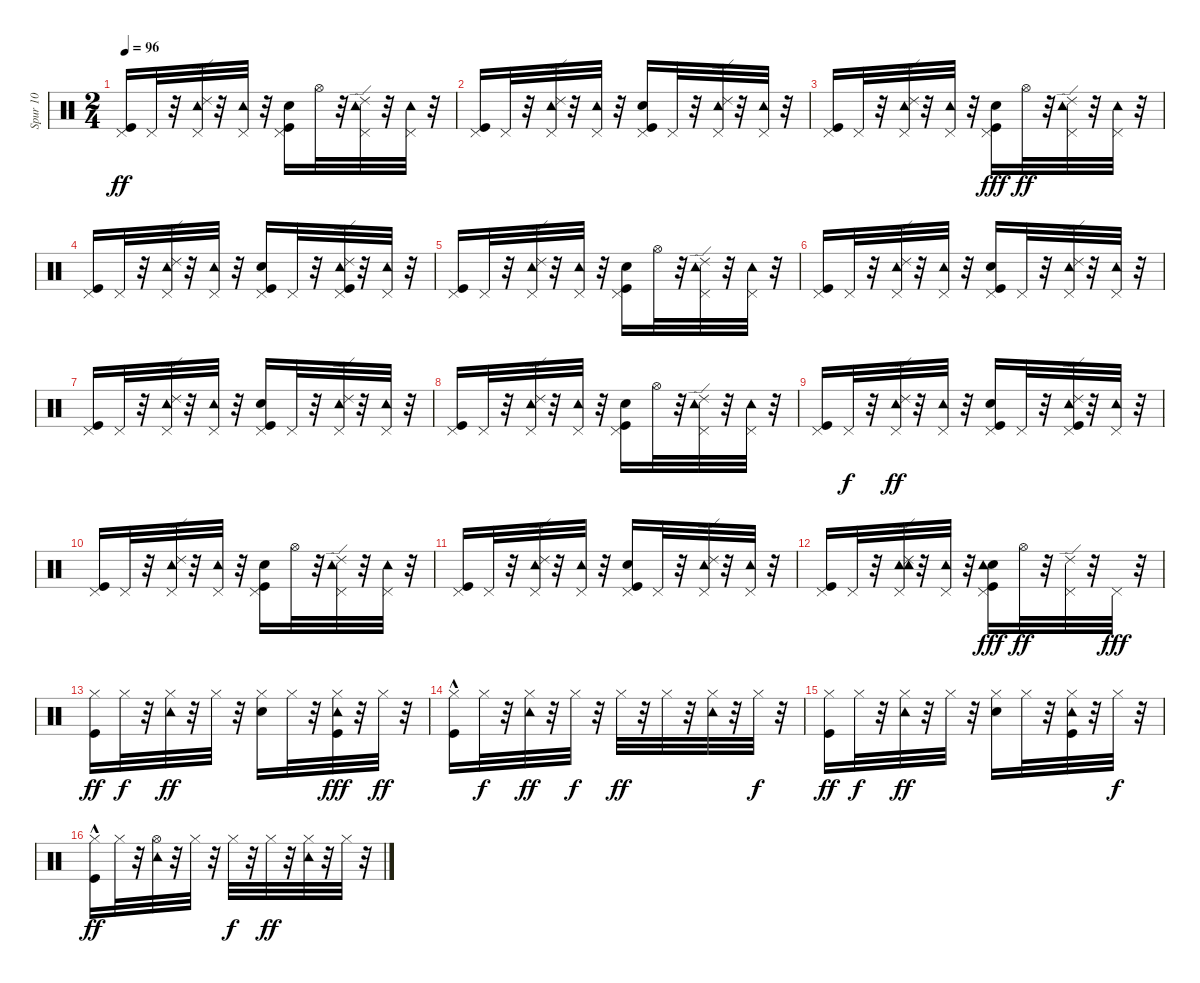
\track ("Spur 10" "Spur 10") {instrument percussion}
\staff {score}
\articulation defaults
\ts (2 4)
\tempo 96
\clef neutral
\ks c
("Kick (hit)" "Pedal Hi-Hat (hit)").16{dy ff} "Pedal Hi-Hat (hit)".32 r.32 ("Tambourine (hit)" "Pedal Hi-Hat (hit)" "Ride (edge) 2").32 r.32 ("Tambourine (hit)" "Pedal Hi-Hat (hit)").32 r.32 ("Kick (hit)" "Snare (hit) 2" "Pedal Hi-Hat (hit)").16 "Hi-Hat (open)".32 r.32 ("Tambourine (hit)" "Pedal Hi-Hat (hit)" "Ride (edge) 2").32 r.32 ("Tambourine (hit)" "Pedal Hi-Hat (hit)").32 r.32 |
("Kick (hit)" "Pedal Hi-Hat (hit)").16 "Pedal Hi-Hat (hit)".32 r.32 ("Tambourine (hit)" "Pedal Hi-Hat (hit)" "Ride (edge) 2").32 r.32 ("Tambourine (hit)" "Pedal Hi-Hat (hit)").32 r.32 ("Kick (hit)" "Snare (hit) 2" "Pedal Hi-Hat (hit)").16 "Pedal Hi-Hat (hit)".32 r.32 ("Tambourine (hit)" "Pedal Hi-Hat (hit)" "Ride (edge) 2").32 r.32 ("Tambourine (hit)" "Pedal Hi-Hat (hit)").32 r.32 |
("Kick (hit)" "Pedal Hi-Hat (hit)").16 "Pedal Hi-Hat (hit)".32 r.32 ("Tambourine (hit)" "Pedal Hi-Hat (hit)" "Ride (edge) 2").32 r.32 ("Tambourine (hit)" "Pedal Hi-Hat (hit)").32 r.32 ("Snare (hit) 2" "Kick (hit)" "Pedal Hi-Hat (hit)").16{dy fff} "Hi-Hat (open)".32{dy ff} r.32 ("Tambourine (hit)" "Pedal Hi-Hat (hit)" "Ride (edge) 2").32 r.32 ("Tambourine (hit)" "Pedal Hi-Hat (hit)").32 r.32 |
("Kick (hit)" "Pedal Hi-Hat (hit)").16 "Pedal Hi-Hat (hit)".32 r.32 ("Tambourine (hit)" "Pedal Hi-Hat (hit)" "Ride (edge) 2").32 r.32 ("Tambourine (hit)" "Pedal Hi-Hat (hit)").32 r.32 ("Snare (hit) 2" "Kick (hit)" "Pedal Hi-Hat (hit)").16 "Pedal Hi-Hat (hit)".32 r.32 ("Kick (hit)" "Tambourine (hit)" "Pedal Hi-Hat (hit)" "Ride (edge) 2").32 r.32 ("Tambourine (hit)" "Pedal Hi-Hat (hit)").32 r.32 |
("Kick (hit)" "Pedal Hi-Hat (hit)").16 "Pedal Hi-Hat (hit)".32 r.32 ("Tambourine (hit)" "Pedal Hi-Hat (hit)" "Ride (edge) 2").32 r.32 ("Tambourine (hit)" "Pedal Hi-Hat (hit)").32 r.32 ("Kick (hit)" "Snare (hit) 2" "Pedal Hi-Hat (hit)").16 "Hi-Hat (open)".32 r.32 ("Tambourine (hit)" "Pedal Hi-Hat (hit)" "Ride (edge) 2").32 r.32 ("Tambourine (hit)" "Pedal Hi-Hat (hit)").32 r.32 |
("Kick (hit)" "Pedal Hi-Hat (hit)").16 "Pedal Hi-Hat (hit)".32 r.32 ("Tambourine (hit)" "Pedal Hi-Hat (hit)" "Ride (edge) 2").32 r.32 ("Tambourine (hit)" "Pedal Hi-Hat (hit)").32 r.32 ("Snare (hit) 2" "Kick (hit)" "Pedal Hi-Hat (hit)").16 "Pedal Hi-Hat (hit)".32 r.32 ("Tambourine (hit)" "Pedal Hi-Hat (hit)" "Ride (edge) 2").32 r.32 ("Tambourine (hit)" "Pedal Hi-Hat (hit)").32 r.32 |
("Kick (hit)" "Pedal Hi-Hat (hit)").16 "Pedal Hi-Hat (hit)".32 r.32 ("Tambourine (hit)" "Pedal Hi-Hat (hit)" "Ride (edge) 2").32 r.32 ("Tambourine (hit)" "Pedal Hi-Hat (hit)").32 r.32 ("Snare (hit) 2" "Kick (hit)" "Pedal Hi-Hat (hit)").16 "Pedal Hi-Hat (hit)".32 r.32 ("Tambourine (hit)" "Pedal Hi-Hat (hit)" "Ride (edge) 2").32 r.32 ("Tambourine (hit)" "Pedal Hi-Hat (hit)").32 r.32 |
("Kick (hit)" "Pedal Hi-Hat (hit)").16 "Pedal Hi-Hat (hit)".32 r.32 ("Tambourine (hit)" "Pedal Hi-Hat (hit)" "Ride (edge) 2").32 r.32 ("Tambourine (hit)" "Pedal Hi-Hat (hit)").32 r.32 ("Snare (hit) 2" "Kick (hit)" "Pedal Hi-Hat (hit)").16 "Hi-Hat (open)".32 r.32 ("Tambourine (hit)" "Pedal Hi-Hat (hit)" "Ride (edge) 2").32 r.32 ("Tambourine (hit)" "Pedal Hi-Hat (hit)").32 r.32 |
("Kick (hit)" "Pedal Hi-Hat (hit)").16 "Pedal Hi-Hat (hit)".32{dy f} r.32 ("Tambourine (hit)" "Pedal Hi-Hat (hit)" "Ride (edge) 2").32{dy ff} r.32 ("Tambourine (hit)" "Pedal Hi-Hat (hit)").32 r.32 ("Snare (hit) 2" "Kick (hit)" "Pedal Hi-Hat (hit)").16 "Pedal Hi-Hat (hit)".32 r.32 ("Kick (hit)" "Tambourine (hit)" "Pedal Hi-Hat (hit)" "Ride (edge) 2").32 r.32 ("Tambourine (hit)" "Pedal Hi-Hat (hit)").32 r.32 |
("Kick (hit)" "Pedal Hi-Hat (hit)").16 "Pedal Hi-Hat (hit)".32 r.32 ("Tambourine (hit)" "Pedal Hi-Hat (hit)" "Ride (edge) 2").32 r.32 ("Tambourine (hit)" "Pedal Hi-Hat (hit)").32 r.32 ("Snare (hit) 2" "Kick (hit)" "Pedal Hi-Hat (hit)").16 "Hi-Hat (open)".32 r.32 ("Tambourine (hit)" "Pedal Hi-Hat (hit)" "Ride (edge) 2").32 r.32 ("Tambourine (hit)" "Pedal Hi-Hat (hit)").32 r.32 |
("Kick (hit)" "Pedal Hi-Hat (hit)").16 "Pedal Hi-Hat (hit)".32 r.32 ("Tambourine (hit)" "Pedal Hi-Hat (hit)" "Ride (edge) 2").32 r.32 ("Tambourine (hit)" "Pedal Hi-Hat (hit)").32 r.32 ("Snare (hit) 2" "Kick (hit)" "Pedal Hi-Hat (hit)").16 "Pedal Hi-Hat (hit)".32 r.32 ("Tambourine (hit)" "Pedal Hi-Hat (hit)" "Ride (edge) 2").32 r.32 ("Tambourine (hit)" "Pedal Hi-Hat (hit)").32 r.32 |
("Kick (hit)" "Pedal Hi-Hat (hit)").16 "Pedal Hi-Hat (hit)".32 r.32 ("Tambourine (hit)" "Tambourine (hit)" "Pedal Hi-Hat (hit)" "Ride (edge) 2").32 r.32 ("Tambourine (hit)" "Pedal Hi-Hat (hit)").32 r.32 ("Snare (hit) 2" "Kick (hit)" "Tambourine (hit)" "Pedal Hi-Hat (hit)").16{dy fff} "Hi-Hat (open)".32{dy ff} r.32 ("Pedal Hi-Hat (hit)" "Ride (edge) 2").32 r.32 "Pedal Hi-Hat (hit)".32{dy fff} r.32 |
("Kick (hit)" "Hi-Hat (closed)").16{dy ff} "Hi-Hat (closed)".32{dy f} r.32 ("Hi-Hat (closed)" "Tambourine (hit)").32{dy ff} r.32 "Hi-Hat (closed)".32 r.32 ("Snare (hit) 2" "Hi-Hat (closed)").16 "Hi-Hat (closed)".32 r.32 ("Kick (hit)" "Hi-Hat (closed)" "Tambourine (hit)").32{dy fff} r.32 "Hi-Hat (closed)".32{dy ff} r.32 |
("Kick (hit)"{hac} "Hi-Hat (closed)").16 "Hi-Hat (closed)".32{dy f} r.32 ("Hi-Hat (closed)" "Tambourine (hit)").32{dy ff} r.32 "Hi-Hat (closed)".32{dy f} r.32 "Hi-Hat (closed)".32{dy ff} r.32 "Hi-Hat (closed)".32 r.32 ("Hi-Hat (closed)" "Tambourine (hit)").32 r.32 "Hi-Hat (closed)".32{dy f} r.32 |
("Kick (hit)" "Hi-Hat (closed)").16{dy ff} "Hi-Hat (closed)".32{dy f} r.32 ("Hi-Hat (closed)" "Tambourine (hit)").32{dy ff} r.32 "Hi-Hat (closed)".32 r.32 ("Snare (hit) 2" "Hi-Hat (closed)").16 "Hi-Hat (closed)".32 r.32 ("Kick (hit)" "Hi-Hat (closed)" "Tambourine (hit)").32 r.32 "Hi-Hat (closed)".32{dy f} r.32 |
("Kick (hit)"{hac} "Hi-Hat (closed)").16{dy ff} "Hi-Hat (closed)".32 r.32 ("Hi-Hat (open)" "Tambourine (hit)").32 r.32 "Hi-Hat (closed)".32 r.32 "Hi-Hat (closed)".32{dy f} r.32 "Hi-Hat (closed)".32{dy ff} r.32 ("Hi-Hat (closed)" "Tambourine (hit)").32 r.32 "Hi-Hat (closed)".32 r.32
